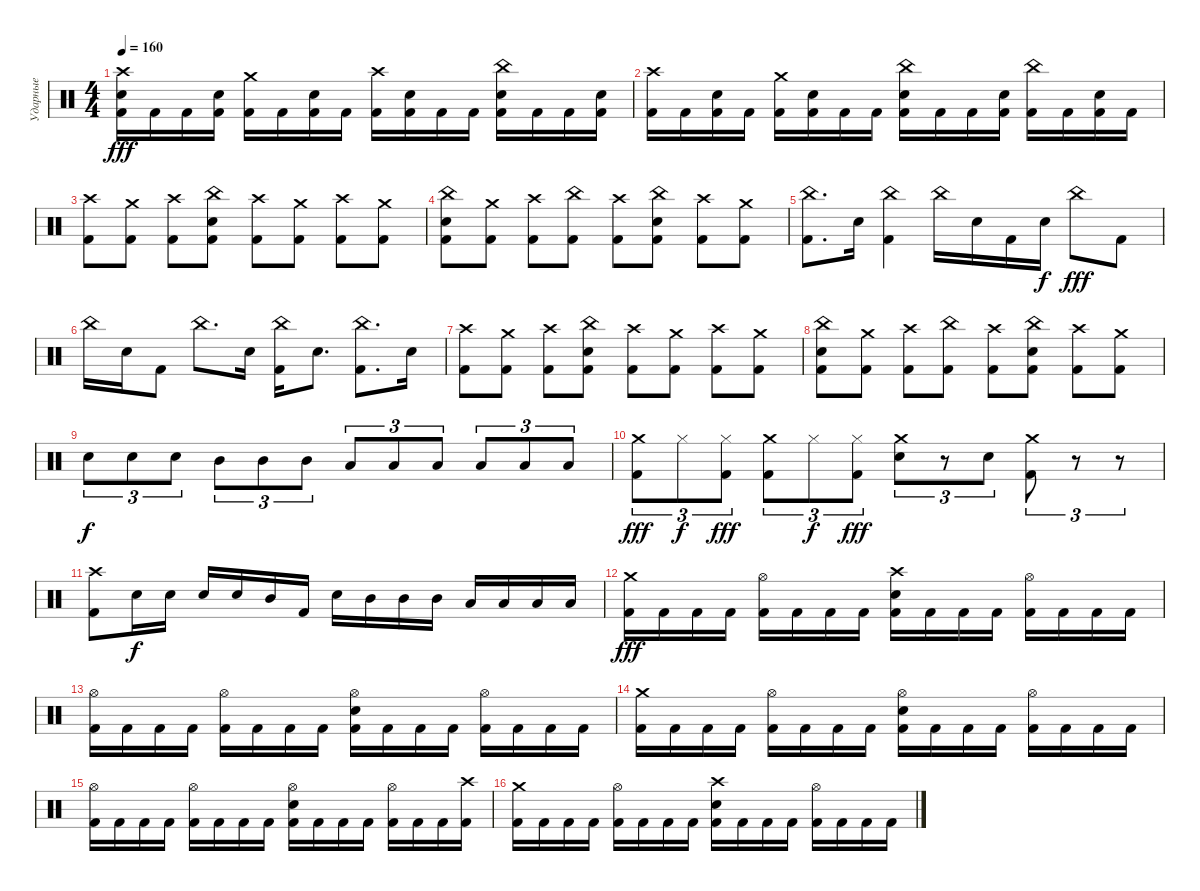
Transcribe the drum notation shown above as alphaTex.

\track ("Ударные" "Ударные") {instrument percussion}
\staff {score}
\articulation defaults
\ts (4 4)
\tempo 160
\clef neutral
\ks c
("Crash high (hit)" "Electric Snare (hit)" "Kick (hit) 2").16{dy fff} "Kick (hit) 2".16 "Kick (hit) 2".16 ("Electric Snare (hit)" "Kick (hit) 2").16 ("Crash medium (hit)" "Kick (hit) 2").16 "Kick (hit) 2".16 ("Electric Snare (hit)" "Kick (hit) 2").16 "Kick (hit) 2".16 ("Crash high (hit)" "Kick (hit) 2").16 ("Electric Snare (hit)" "Kick (hit) 2").16 "Kick (hit) 2".16 "Kick (hit) 2".16 ("China (hit)" "Electric Snare (hit)" "Kick (hit) 2").16 "Kick (hit) 2".16 "Kick (hit) 2".16 ("Electric Snare (hit)" "Kick (hit) 2").16 |
("Crash high (hit)" "Kick (hit) 2").16 "Kick (hit) 2".16 ("Electric Snare (hit)" "Kick (hit) 2").16 "Kick (hit) 2".16 ("Crash medium (hit)" "Kick (hit) 2").16 ("Electric Snare (hit)" "Kick (hit) 2").16 "Kick (hit) 2".16 "Kick (hit) 2".16 ("China (hit)" "Electric Snare (hit)" "Kick (hit) 2").16 "Kick (hit) 2".16 "Kick (hit) 2".16 ("Electric Snare (hit)" "Kick (hit) 2").16 ("China (hit)" "Kick (hit) 2").16 "Kick (hit) 2".16 ("Electric Snare (hit)" "Kick (hit) 2").16 "Kick (hit) 2".16 |
("Crash high (hit)" "Kick (hit) 2").8 ("Crash medium (hit)" "Kick (hit) 2").8 ("Crash high (hit)" "Kick (hit) 2").8 ("China (hit)" "Electric Snare (hit)" "Kick (hit) 2").8 ("Crash high (hit)" "Kick (hit) 2").8 ("Crash medium (hit)" "Kick (hit) 2").8 ("Crash high (hit)" "Kick (hit) 2").8 ("Crash medium (hit)" "Kick (hit) 2").8 |
("China (hit)" "Electric Snare (hit)" "Kick (hit) 2").8 ("Crash medium (hit)" "Kick (hit) 2").8 ("Crash high (hit)" "Kick (hit) 2").8 ("China (hit)" "Kick (hit) 2").8 ("Crash high (hit)" "Kick (hit) 2").8 ("China (hit)" "Electric Snare (hit)" "Kick (hit) 2").8 ("Crash high (hit)" "Kick (hit) 2").8 ("Crash medium (hit)" "Kick (hit) 2").8 |
("China (hit)" "Kick (hit) 2").8{d} "Electric Snare (hit)".16 ("China (hit)" "Kick (hit) 2").4 "China (hit)".16 "Electric Snare (hit)".16 "Kick (hit) 2".16 "Electric Snare (hit)".16{dy f} "China (hit)".8{dy fff} "Kick (hit) 2".8 |
"China (hit)".16 "Electric Snare (hit)".16 "Kick (hit) 2".8 "China (hit)".8{d} "Electric Snare (hit)".16 ("China (hit)" "Kick (hit) 2").16 "Electric Snare (hit)".8{d} ("China (hit)" "Kick (hit) 2").8{d} "Electric Snare (hit)".16 |
("Crash high (hit)" "Kick (hit) 2").8 ("Crash medium (hit)" "Kick (hit) 2").8 ("Crash high (hit)" "Kick (hit) 2").8 ("China (hit)" "Electric Snare (hit)" "Kick (hit) 2").8 ("Crash high (hit)" "Kick (hit) 2").8 ("Crash medium (hit)" "Kick (hit) 2").8 ("Crash high (hit)" "Kick (hit) 2").8 ("Crash medium (hit)" "Kick (hit) 2").8 |
("China (hit)" "Electric Snare (hit)" "Kick (hit) 2").8 ("Crash medium (hit)" "Kick (hit) 2").8 ("Crash high (hit)" "Kick (hit) 2").8 ("China (hit)" "Kick (hit) 2").8 ("Crash high (hit)" "Kick (hit) 2").8 ("China (hit)" "Electric Snare (hit)" "Kick (hit) 2").8 ("Crash high (hit)" "Kick (hit) 2").8 ("Crash medium (hit)" "Kick (hit) 2").8 |
"Electric Snare (hit)".8{tu (3 2) dy f} "Electric Snare (hit)".8{tu (3 2)} "Electric Snare (hit)".8{tu (3 2)} "Mid Tom (hit)".8{tu (3 2)} "Mid Tom (hit)".8{tu (3 2)} "Mid Tom (hit)".8{tu (3 2)} "Low Tom (hit)".8{tu (3 2)} "Low Tom (hit)".8{tu (3 2)} "Low Tom (hit)".8{tu (3 2)} "Low Floor Tom (hit)".8{tu (3 2)} "Low Floor Tom (hit)".8{tu (3 2)} "Low Floor Tom (hit)".8{tu (3 2)} |
("Crash medium (hit)" "Kick (hit) 2").8{tu (3 2) dy fff} "Hi-Hat (closed)".8{tu (3 2) dy f} ("Hi-Hat (closed)" "Kick (hit) 2").8{tu (3 2) dy fff} ("Crash medium (hit)" "Kick (hit) 2").8{tu (3 2)} "Hi-Hat (closed)".8{tu (3 2) dy f} ("Hi-Hat (closed)" "Kick (hit) 2").8{tu (3 2) dy fff} ("Crash medium (hit)" "Electric Snare (hit)").8{tu (3 2)} r.8{tu (3 2)} "Electric Snare (hit)".8{tu (3 2)} ("Crash medium (hit)" "Kick (hit) 2").8{tu (3 2)} r.8{tu (3 2)} r.8{tu (3 2)} |
("Crash high (hit)" "Kick (hit) 2").8 "Electric Snare (hit)".16{dy f} "Electric Snare (hit)".16 "Electric Snare (hit)".16 "Electric Snare (hit)".16 "Mid Tom (hit)".16 "Kick (hit) 2".16 "Electric Snare (hit)".16 "Mid Tom (hit)".16 "Mid Tom (hit)".16 "Mid Tom (hit)".16 "Low Tom (hit)".16 "Low Tom (hit)".16 "Low Floor Tom (hit)".16 "Low Floor Tom (hit)".16 |
("Crash medium (hit)" "Kick (hit) 2").16{dy fff} "Kick (hit) 2".16 "Kick (hit) 2".16 "Kick (hit) 2".16 ("Hi-Hat (open)" "Kick (hit) 2").16 "Kick (hit) 2".16 "Kick (hit) 2".16 "Kick (hit) 2".16 ("Crash high (hit)" "Electric Snare (hit)" "Kick (hit) 2").16 "Kick (hit) 2".16 "Kick (hit) 2".16 "Kick (hit) 2".16 ("Hi-Hat (open)" "Kick (hit) 2").16 "Kick (hit) 2".16 "Kick (hit) 2".16 "Kick (hit) 2".16 |
("Hi-Hat (open)" "Kick (hit) 2").16 "Kick (hit) 2".16 "Kick (hit) 2".16 "Kick (hit) 2".16 ("Hi-Hat (open)" "Kick (hit) 2").16 "Kick (hit) 2".16 "Kick (hit) 2".16 "Kick (hit) 2".16 ("Hi-Hat (open)" "Electric Snare (hit)" "Kick (hit) 2").16 "Kick (hit) 2".16 "Kick (hit) 2".16 "Kick (hit) 2".16 ("Hi-Hat (open)" "Kick (hit) 2").16 "Kick (hit) 2".16 "Kick (hit) 2".16 "Kick (hit) 2".16 |
("Crash medium (hit)" "Kick (hit) 2").16 "Kick (hit) 2".16 "Kick (hit) 2".16 "Kick (hit) 2".16 ("Hi-Hat (open)" "Kick (hit) 2").16 "Kick (hit) 2".16 "Kick (hit) 2".16 "Kick (hit) 2".16 ("Hi-Hat (open)" "Electric Snare (hit)" "Kick (hit) 2").16 "Kick (hit) 2".16 "Kick (hit) 2".16 "Kick (hit) 2".16 ("Hi-Hat (open)" "Kick (hit) 2").16 "Kick (hit) 2".16 "Kick (hit) 2".16 "Kick (hit) 2".16 |
("Hi-Hat (open)" "Kick (hit) 2").16 "Kick (hit) 2".16 "Kick (hit) 2".16 "Kick (hit) 2".16 ("Hi-Hat (open)" "Kick (hit) 2").16 "Kick (hit) 2".16 "Kick (hit) 2".16 "Kick (hit) 2".16 ("Hi-Hat (open)" "Electric Snare (hit)" "Kick (hit) 2").16 "Kick (hit) 2".16 "Kick (hit) 2".16 "Kick (hit) 2".16 ("Hi-Hat (open)" "Kick (hit) 2").16 "Kick (hit) 2".16 "Kick (hit) 2".16 ("Crash high (hit)" "Kick (hit) 2").16 |
("Crash medium (hit)" "Kick (hit) 2").16 "Kick (hit) 2".16 "Kick (hit) 2".16 "Kick (hit) 2".16 ("Hi-Hat (open)" "Kick (hit) 2").16 "Kick (hit) 2".16 "Kick (hit) 2".16 "Kick (hit) 2".16 ("Crash high (hit)" "Electric Snare (hit)" "Kick (hit) 2").16 "Kick (hit) 2".16 "Kick (hit) 2".16 "Kick (hit) 2".16 ("Hi-Hat (open)" "Kick (hit) 2").16 "Kick (hit) 2".16 "Kick (hit) 2".16 "Kick (hit) 2".16
